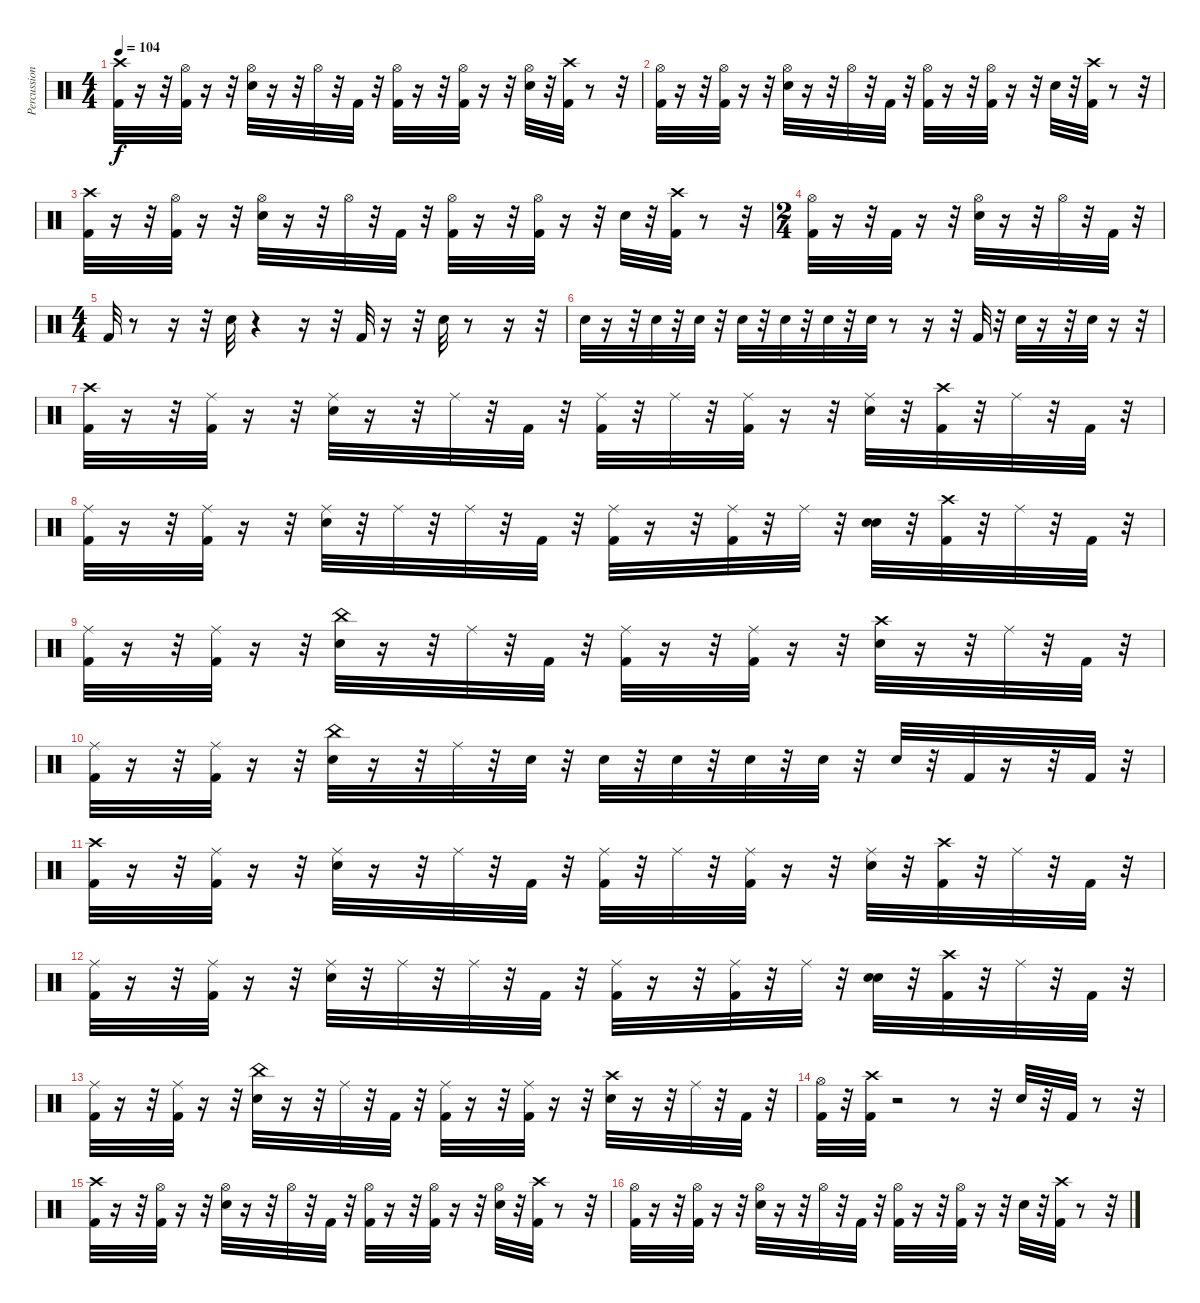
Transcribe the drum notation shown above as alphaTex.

\track ("Percussions" "Percussion") {instrument percussion}
\staff {score}
\articulation defaults
\ts (4 4)
\tempo 104
\clef neutral
\ks c
("Crash high (hit)" "Kick (hit) 2").32{dy f} r.16 r.32 ("Hi-Hat (open)" "Kick (hit) 2").32 r.16 r.32 ("Hi-Hat (open)" "Snare (hit) 2").32 r.16 r.32 "Hi-Hat (open)".32 r.32 "Kick (hit) 2".32 r.32 ("Kick (hit) 2" "Hi-Hat (open)").32 r.16 r.32 ("Kick (hit) 2" "Hi-Hat (open)").32 r.16 r.32 ("Hi-Hat (open)" "Snare (hit) 2").32 r.32 ("Kick (hit) 2" "Crash high (hit)").32 r.8 r.32 |
("Hi-Hat (open)" "Kick (hit) 2").32 r.16 r.32 ("Kick (hit) 2" "Hi-Hat (open)").32 r.16 r.32 ("Hi-Hat (open)" "Snare (hit) 2").32 r.16 r.32 "Hi-Hat (open)".32 r.32 "Kick (hit) 2".32 r.32 ("Kick (hit) 2" "Hi-Hat (open)").32 r.16 r.32 ("Kick (hit) 2" "Hi-Hat (open)").32 r.16 r.32 "Snare (hit) 2".32 r.32 ("Kick (hit) 2" "Crash high (hit)").32 r.8 r.32 |
("Crash high (hit)" "Kick (hit) 2").32 r.16 r.32 ("Kick (hit) 2" "Hi-Hat (open)").32 r.16 r.32 ("Snare (hit) 2" "Hi-Hat (open)").32 r.16 r.32 "Hi-Hat (open)".32 r.32 "Kick (hit) 2".32 r.32 ("Kick (hit) 2" "Hi-Hat (open)").32 r.16 r.32 ("Hi-Hat (open)" "Kick (hit) 2").32 r.16 r.32 "Snare (hit) 2".32 r.32 ("Crash high (hit)" "Kick (hit) 2").32 r.8 r.32 |
\ts (2 4)
("Kick (hit) 2" "Hi-Hat (open)").32 r.16 r.32 "Kick (hit) 2".32 r.16 r.32 ("Snare (hit) 2" "Hi-Hat (open)").32 r.16 r.32 "Hi-Hat (open)".32 r.32 "Kick (hit) 2".32 r.32 |
\ts (4 4)
"Kick (hit) 2".32 r.8 r.16 r.32 "Snare (hit) 2".32 r.4 r.16 r.32 "Kick (hit) 2".32 r.16 r.32 "Snare (hit) 2".32 r.8 r.16 r.32 |
"Snare (hit) 2".32 r.16 r.32 "Snare (hit) 2".32 r.32 "Snare (hit) 2".32 r.32 "Snare (hit) 2".32 r.32 "Snare (hit) 2".32 r.32 "Snare (hit) 2".32 r.32 "Snare (hit) 2".32 r.8 r.16 r.32 "Kick (hit) 2".32 r.32 "Snare (hit) 2".32 r.16 r.32 "Snare (hit) 2".32 r.16 r.32 |
("Crash high (hit)" "Kick (hit) 2").32 r.16 r.32 ("Kick (hit) 2" "Ride (middle)").32 r.16 r.32 ("Ride (middle)" "Snare (hit) 2").32 r.16 r.32 "Ride (middle)".32 r.32 "Kick (hit) 2".32 r.32 ("Kick (hit) 2" "Ride (middle)").32 r.32 "Ride (middle)".32 r.32 ("Ride (middle)" "Kick (hit) 2").32 r.16 r.32 ("Snare (hit) 2" "Ride (middle)").32 r.32 ("Crash high (hit)" "Kick (hit) 2").32 r.32 "Ride (middle)".32 r.32 "Kick (hit) 2".32 r.32 |
("Kick (hit) 2" "Ride (middle)").32 r.16 r.32 ("Kick (hit) 2" "Ride (middle)").32 r.16 r.32 ("Snare (hit) 2" "Ride (middle)").32 r.32 "Ride (middle)".32 r.32 "Ride (middle)".32 r.32 "Kick (hit) 2".32 r.32 ("Ride (middle)" "Kick (hit) 2").32 r.16 r.32 ("Kick (hit) 2" "Ride (middle)").32 r.32 "Ride (middle)".32 r.32 ("Electric Snare (hit)" "Snare (hit) 2").32 r.32 ("Kick (hit) 2" "Crash high (hit)").32 r.32 "Ride (middle)".32 r.32 "Kick (hit) 2".32 r.32 |
("Kick (hit) 2" "Ride (middle)").32 r.16 r.32 ("Kick (hit) 2" "Ride (middle)").32 r.16 r.32 ("China (hit)" "Snare (hit) 2").32 r.16 r.32 "Ride (middle)".32 r.32 "Kick (hit) 2".32 r.32 ("Kick (hit) 2" "Ride (middle)").32 r.16 r.32 ("Ride (middle)" "Kick (hit) 2").32 r.16 r.32 ("Snare (hit) 2" "Crash high (hit)").32 r.16 r.32 "Ride (middle)".32 r.32 "Kick (hit) 2".32 r.32 |
("Ride (middle)" "Kick (hit) 2").32 r.16 r.32 ("Kick (hit) 2" "Ride (middle)").32 r.16 r.32 ("Snare (hit) 2" "China (hit)").32 r.16 r.32 "Ride (middle)".32 r.32 "Snare (hit) 2".32 r.32 "Snare (hit) 2".32 r.32 "Snare (hit) 2".32 r.32 "Snare (hit) 2".32 r.32 "Snare (hit) 2".32 r.32 "Snare (hit) 2".32 r.32 "Kick (hit) 2".32 r.16 r.32 "Kick (hit) 2".32 r.32 |
("Crash high (hit)" "Kick (hit) 2").32 r.16 r.32 ("Kick (hit) 2" "Ride (middle)").32 r.16 r.32 ("Ride (middle)" "Snare (hit) 2").32 r.16 r.32 "Ride (middle)".32 r.32 "Kick (hit) 2".32 r.32 ("Kick (hit) 2" "Ride (middle)").32 r.32 "Ride (middle)".32 r.32 ("Ride (middle)" "Kick (hit) 2").32 r.16 r.32 ("Snare (hit) 2" "Ride (middle)").32 r.32 ("Crash high (hit)" "Kick (hit) 2").32 r.32 "Ride (middle)".32 r.32 "Kick (hit) 2".32 r.32 |
("Kick (hit) 2" "Ride (middle)").32 r.16 r.32 ("Kick (hit) 2" "Ride (middle)").32 r.16 r.32 ("Snare (hit) 2" "Ride (middle)").32 r.32 "Ride (middle)".32 r.32 "Ride (middle)".32 r.32 "Kick (hit) 2".32 r.32 ("Ride (middle)" "Kick (hit) 2").32 r.16 r.32 ("Kick (hit) 2" "Ride (middle)").32 r.32 "Ride (middle)".32 r.32 ("Electric Snare (hit)" "Snare (hit) 2").32 r.32 ("Kick (hit) 2" "Crash high (hit)").32 r.32 "Ride (middle)".32 r.32 "Kick (hit) 2".32 r.32 |
("Kick (hit) 2" "Ride (middle)").32 r.16 r.32 ("Kick (hit) 2" "Ride (middle)").32 r.16 r.32 ("China (hit)" "Snare (hit) 2").32 r.16 r.32 "Ride (middle)".32 r.32 "Kick (hit) 2".32 r.32 ("Kick (hit) 2" "Ride (middle)").32 r.16 r.32 ("Ride (middle)" "Kick (hit) 2").32 r.16 r.32 ("Snare (hit) 2" "Crash high (hit)").32 r.16 r.32 "Ride (middle)".32 r.32 "Kick (hit) 2".32 r.32 |
("Hi-Hat (open)" "Kick (hit) 2").32 r.32 ("Crash high (hit)" "Kick (hit) 2").32 r.2 r.8 r.32 "Snare (hit) 2".32 r.32 "Kick (hit) 2".32 r.8 r.32 |
("Crash high (hit)" "Kick (hit) 2").32 r.16 r.32 ("Hi-Hat (open)" "Kick (hit) 2").32 r.16 r.32 ("Hi-Hat (open)" "Snare (hit) 2").32 r.16 r.32 "Hi-Hat (open)".32 r.32 "Kick (hit) 2".32 r.32 ("Kick (hit) 2" "Hi-Hat (open)").32 r.16 r.32 ("Kick (hit) 2" "Hi-Hat (open)").32 r.16 r.32 ("Hi-Hat (open)" "Snare (hit) 2").32 r.32 ("Kick (hit) 2" "Crash high (hit)").32 r.8 r.32 |
("Hi-Hat (open)" "Kick (hit) 2").32 r.16 r.32 ("Kick (hit) 2" "Hi-Hat (open)").32 r.16 r.32 ("Hi-Hat (open)" "Snare (hit) 2").32 r.16 r.32 "Hi-Hat (open)".32 r.32 "Kick (hit) 2".32 r.32 ("Kick (hit) 2" "Hi-Hat (open)").32 r.16 r.32 ("Kick (hit) 2" "Hi-Hat (open)").32 r.16 r.32 "Snare (hit) 2".32 r.32 ("Kick (hit) 2" "Crash high (hit)").32 r.8 r.32
